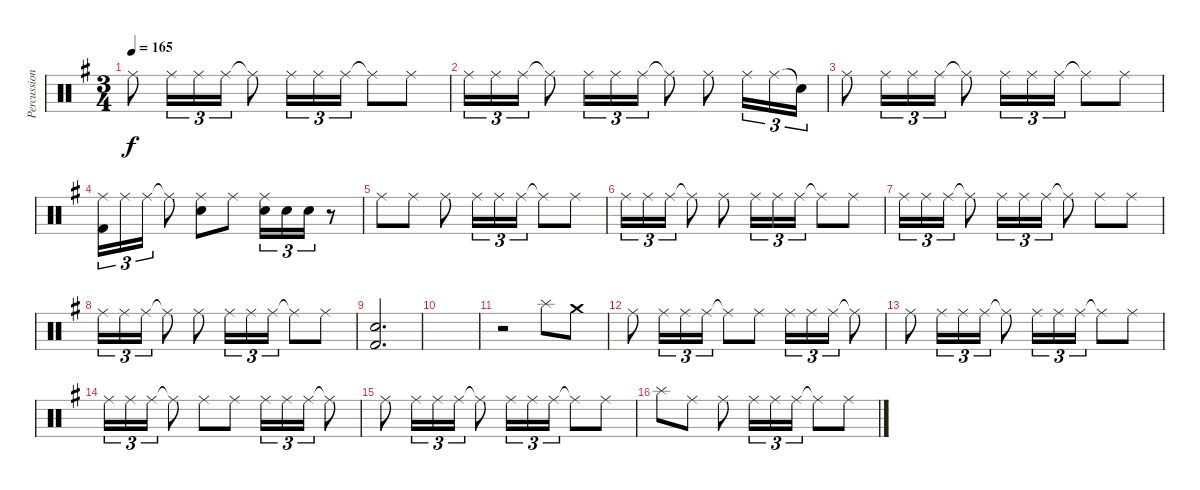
\track ("Percussion" "Percussion") {instrument percussion}
\staff {score}
\articulation defaults
\ts (3 4)
\tempo 165
\clef neutral
\ks g "Ride (middle)".8{dy f} "Ride (middle)".16{tu (3 2)} "Ride (middle)".16{tu (3 2)} "Ride (middle)".16{tu (3 2)} "Ride (middle)"{t}.8 "Ride (middle)".16{tu (3 2)} "Ride (middle)".16{tu (3 2)} "Ride (middle)".16{tu (3 2)} "Ride (middle)"{t}.8 "Ride (middle)".8
|
"Ride (middle)".16{tu (3 2)} "Ride (middle)".16{tu (3 2)} "Ride (middle)".16{tu (3 2)} "Ride (middle)"{t}.8 "Ride (middle)".16{tu (3 2)} "Ride (middle)".16{tu (3 2)} "Ride (middle)".16{tu (3 2)} "Ride (middle)"{t}.8 "Ride (middle)".8 "Ride (middle)".16{tu (3 2)} "Ride (middle)".16{tu (3 2)} "Snare (hit)"{t}.16{tu (3 2)} |
"Ride (middle)".8 "Ride (middle)".16{tu (3 2)} "Ride (middle)".16{tu (3 2)} "Ride (middle)".16{tu (3 2)} "Ride (middle)"{t}.8 "Ride (middle)".16{tu (3 2)} "Ride (middle)".16{tu (3 2)} "Ride (middle)".16{tu (3 2)} "Ride (middle)"{t}.8 "Ride (middle)".8 |
("Ride (middle)" "Kick (hit) 2").16{tu (3 2)} "Ride (middle)".16{tu (3 2)} "Ride (middle)".16{tu (3 2)} "Ride (middle)"{t}.8 ("Ride (middle)" "Snare (hit) 2").8 "Ride (middle)".8 ("Ride (middle)" "Snare (hit) 2").16{tu (3 2)} "Snare (hit) 2".16{tu (3 2)} "Snare (hit) 2".16{tu (3 2)} r.8 |
"Ride (middle)".8 "Ride (middle)".8 "Ride (middle)".8 "Ride (middle)".16{tu (3 2)} "Ride (middle)".16{tu (3 2)} "Ride (middle)".16{tu (3 2)} "Ride (middle)"{t}.8 "Ride (middle)".8 |
"Ride (middle)".16{tu (3 2)} "Ride (middle)".16{tu (3 2)} "Ride (middle)".16{tu (3 2)} "Ride (middle)"{t}.8 "Ride (middle)".8 "Ride (middle)".16{tu (3 2)} "Ride (middle)".16{tu (3 2)} "Ride (middle)".16{tu (3 2)} "Ride (middle)"{t}.8 "Ride (middle)".8 |
"Ride (middle)".16{tu (3 2)} "Ride (middle)".16{tu (3 2)} "Ride (middle)".16{tu (3 2)} "Ride (middle)"{t}.8 "Ride (middle)".16{tu (3 2)} "Ride (middle)".16{tu (3 2)} "Ride (middle)".16{tu (3 2)} "Ride (middle)"{t}.8 "Ride (middle)".8 "Ride (middle)".8 |
"Ride (middle)".16{tu (3 2)} "Ride (middle)".16{tu (3 2)} "Ride (middle)".16{tu (3 2)} "Ride (middle)"{t}.8 "Ride (middle)".8 "Ride (middle)".16{tu (3 2)} "Ride (middle)".16{tu (3 2)} "Ride (middle)".16{tu (3 2)} "Ride (middle)"{t}.8 "Ride (middle)".8 |
("Snare (hit) 2" "Kick (hit) 2").2{d} |
|
r.2 "Splash (hit)".8 "Crash medium (hit)".8 |
"Ride (middle)".8 "Ride (middle)".16{tu (3 2)} "Ride (middle)".16{tu (3 2)} "Ride (middle)".16{tu (3 2)} "Ride (middle)"{t}.8 "Ride (middle)".8 "Ride (middle)".16{tu (3 2)} "Ride (middle)".16{tu (3 2)} "Ride (middle)".16{tu (3 2)} "Ride (middle)"{t}.8 |
"Ride (middle)".8 "Ride (middle)".16{tu (3 2)} "Ride (middle)".16{tu (3 2)} "Ride (middle)".16{tu (3 2)} "Ride (middle)"{t}.8 "Ride (middle)".16{tu (3 2)} "Ride (middle)".16{tu (3 2)} "Ride (middle)".16{tu (3 2)} "Ride (middle)"{t}.8 "Ride (middle)".8 |
"Ride (middle)".16{tu (3 2)} "Ride (middle)".16{tu (3 2)} "Ride (middle)".16{tu (3 2)} "Ride (middle)"{t}.8 "Ride (middle)".8 "Ride (middle)".8 "Ride (middle)".16{tu (3 2)} "Ride (middle)".16{tu (3 2)} "Ride (middle)".16{tu (3 2)} "Ride (middle)"{t}.8 |
"Ride (middle)".8 "Ride (middle)".16{tu (3 2)} "Ride (middle)".16{tu (3 2)} "Ride (middle)".16{tu (3 2)} "Ride (middle)"{t}.8 "Ride (middle)".16{tu (3 2)} "Ride (middle)".16{tu (3 2)} "Ride (middle)".16{tu (3 2)} "Ride (middle)"{t}.8 "Ride (middle)".8 |
"Splash (hit)".8 "Ride (middle)".8 "Ride (middle)".8 "Ride (middle)".16{tu (3 2)} "Ride (middle)".16{tu (3 2)} "Ride (middle)".16{tu (3 2)} "Ride (middle)"{t}.8 "Ride (middle)".8
